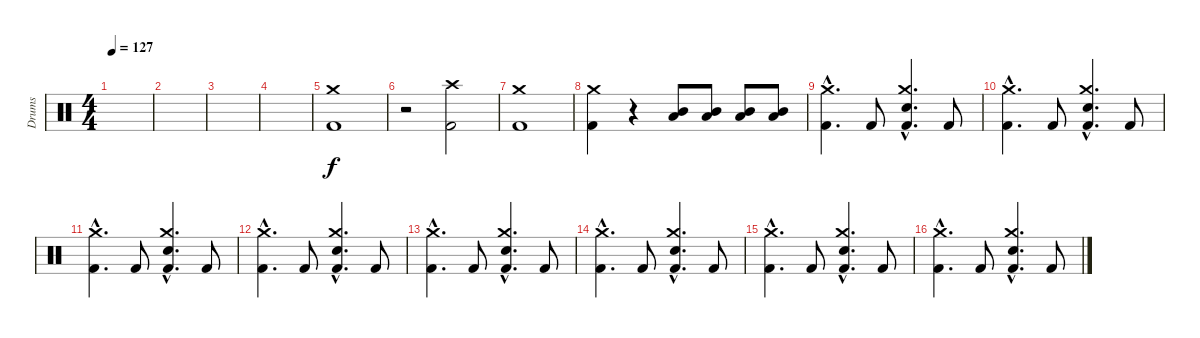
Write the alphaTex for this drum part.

\track ("Drums" "Drums") {instrument percussion}
\staff {score}
\articulation defaults
\ts (4 4)
\tempo 127
\clef neutral
\ks c
|
|
|
|
("Kick (hit) 2" "Crash medium (hit)").1 |
r.2 ("Kick (hit) 2" "Crash high (hit)").2 |
("Kick (hit) 2" "Crash medium (hit)").1 |
("Kick (hit) 2" "Crash medium (hit)").4 r.4 ("Low Tom (hit)" "Mid Tom (hit)").8 ("Low Tom (hit)" "Mid Tom (hit)").8 ("Low Tom (hit)" "Mid Tom (hit)").8 ("Low Tom (hit)" "Mid Tom (hit)").8 |
("Kick (hit) 2"{hac} "Crash medium (hit)"{hac}).4{d} "Kick (hit) 2".8 ("Kick (hit) 2"{hac} "Electric Snare (hit)"{hac} "Crash medium (hit)"{hac}).4{d} "Kick (hit) 2".8 |
("Kick (hit) 2"{hac} "Crash medium (hit)"{hac}).4{d} "Kick (hit) 2".8 ("Kick (hit) 2"{hac} "Electric Snare (hit)"{hac} "Crash medium (hit)"{hac}).4{d} "Kick (hit) 2".8 |
("Kick (hit) 2"{hac} "Crash medium (hit)"{hac}).4{d} "Kick (hit) 2".8 ("Kick (hit) 2"{hac} "Electric Snare (hit)"{hac} "Crash medium (hit)"{hac}).4{d} "Kick (hit) 2".8 |
("Kick (hit) 2"{hac} "Crash medium (hit)"{hac}).4{d} "Kick (hit) 2".8 ("Kick (hit) 2"{hac} "Electric Snare (hit)"{hac} "Crash medium (hit)"{hac}).4{d} "Kick (hit) 2".8 |
("Kick (hit) 2"{hac} "Crash medium (hit)"{hac}).4{d} "Kick (hit) 2".8 ("Kick (hit) 2"{hac} "Electric Snare (hit)"{hac} "Crash medium (hit)"{hac}).4{d} "Kick (hit) 2".8 |
("Kick (hit) 2"{hac} "Crash medium (hit)"{hac}).4{d} "Kick (hit) 2".8 ("Kick (hit) 2"{hac} "Electric Snare (hit)"{hac} "Crash medium (hit)"{hac}).4{d} "Kick (hit) 2".8 |
("Kick (hit) 2"{hac} "Crash medium (hit)"{hac}).4{d} "Kick (hit) 2".8 ("Kick (hit) 2"{hac} "Electric Snare (hit)"{hac} "Crash medium (hit)"{hac}).4{d} "Kick (hit) 2".8 |
("Kick (hit) 2"{hac} "Crash medium (hit)"{hac}).4{d} "Kick (hit) 2".8 ("Kick (hit) 2"{hac} "Electric Snare (hit)"{hac} "Crash medium (hit)"{hac}).4{d} "Kick (hit) 2".8
